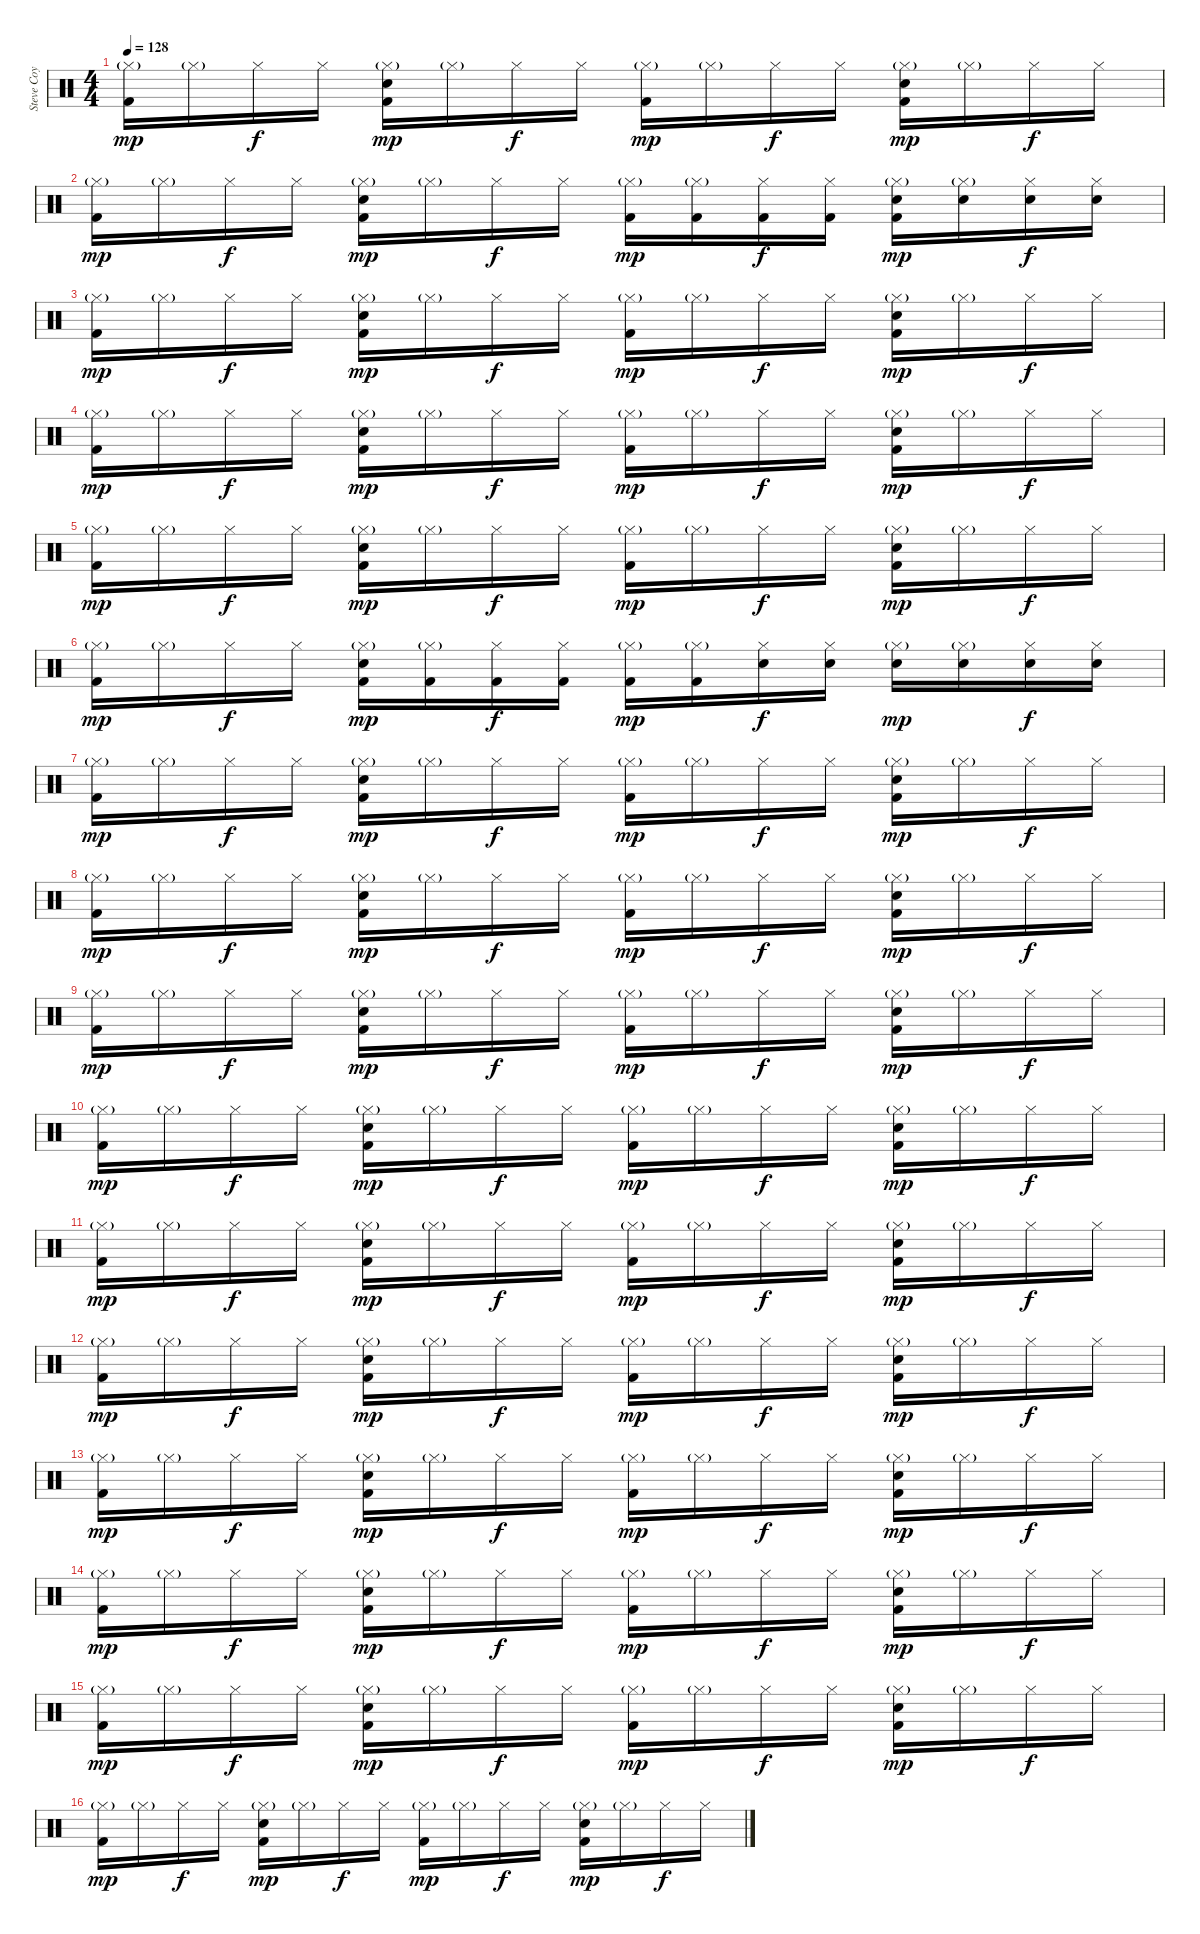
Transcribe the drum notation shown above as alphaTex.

\track ("Steve Coy" "Steve Coy") {instrument percussion}
\staff {score}
\articulation defaults
\ts (4 4)
\tempo 128
\clef neutral
\ks c
("Hi-Hat (closed)"{g} "Kick (hit) 2").16{dy mp} "Hi-Hat (closed)"{g}.16 "Hi-Hat (closed)".16{dy f} "Hi-Hat (closed)".16 ("Hi-Hat (closed)"{g} "Snare (hit) 2" "Kick (hit) 2").16{dy mp} "Hi-Hat (closed)"{g}.16 "Hi-Hat (closed)".16{dy f} "Hi-Hat (closed)".16 ("Hi-Hat (closed)"{g} "Kick (hit) 2").16{dy mp} "Hi-Hat (closed)"{g}.16 "Hi-Hat (closed)".16{dy f} "Hi-Hat (closed)".16 ("Hi-Hat (closed)"{g} "Snare (hit) 2" "Kick (hit) 2").16{dy mp} "Hi-Hat (closed)"{g}.16 "Hi-Hat (closed)".16{dy f} "Hi-Hat (closed)".16 |
("Hi-Hat (closed)"{g} "Kick (hit) 2").16{dy mp} "Hi-Hat (closed)"{g}.16 "Hi-Hat (closed)".16{dy f} "Hi-Hat (closed)".16 ("Hi-Hat (closed)"{g} "Snare (hit) 2" "Kick (hit) 2").16{dy mp} "Hi-Hat (closed)"{g}.16 "Hi-Hat (closed)".16{dy f} "Hi-Hat (closed)".16 ("Hi-Hat (closed)"{g} "Kick (hit) 2").16{dy mp} ("Hi-Hat (closed)"{g} "Kick (hit) 2").16 ("Hi-Hat (closed)" "Kick (hit) 2").16{dy f} ("Hi-Hat (closed)" "Kick (hit) 2").16 ("Hi-Hat (closed)"{g} "Snare (hit) 2" "Kick (hit) 2").16{dy mp} ("Hi-Hat (closed)"{g} "Snare (hit) 2").16 ("Hi-Hat (closed)" "Snare (hit) 2").16{dy f} ("Hi-Hat (closed)" "Snare (hit) 2").16 |
("Hi-Hat (closed)"{g} "Kick (hit) 2").16{dy mp} "Hi-Hat (closed)"{g}.16 "Hi-Hat (closed)".16{dy f} "Hi-Hat (closed)".16 ("Hi-Hat (closed)"{g} "Snare (hit) 2" "Kick (hit) 2").16{dy mp} "Hi-Hat (closed)"{g}.16 "Hi-Hat (closed)".16{dy f} "Hi-Hat (closed)".16 ("Hi-Hat (closed)"{g} "Kick (hit) 2").16{dy mp} "Hi-Hat (closed)"{g}.16 "Hi-Hat (closed)".16{dy f} "Hi-Hat (closed)".16 ("Hi-Hat (closed)"{g} "Snare (hit) 2" "Kick (hit) 2").16{dy mp} "Hi-Hat (closed)"{g}.16 "Hi-Hat (closed)".16{dy f} "Hi-Hat (closed)".16 |
("Hi-Hat (closed)"{g} "Kick (hit) 2").16{dy mp} "Hi-Hat (closed)"{g}.16 "Hi-Hat (closed)".16{dy f} "Hi-Hat (closed)".16 ("Hi-Hat (closed)"{g} "Snare (hit) 2" "Kick (hit) 2").16{dy mp} "Hi-Hat (closed)"{g}.16 "Hi-Hat (closed)".16{dy f} "Hi-Hat (closed)".16 ("Hi-Hat (closed)"{g} "Kick (hit) 2").16{dy mp} "Hi-Hat (closed)"{g}.16 "Hi-Hat (closed)".16{dy f} "Hi-Hat (closed)".16 ("Hi-Hat (closed)"{g} "Snare (hit) 2" "Kick (hit) 2").16{dy mp} "Hi-Hat (closed)"{g}.16 "Hi-Hat (closed)".16{dy f} "Hi-Hat (closed)".16 |
("Hi-Hat (closed)"{g} "Kick (hit) 2").16{dy mp} "Hi-Hat (closed)"{g}.16 "Hi-Hat (closed)".16{dy f} "Hi-Hat (closed)".16 ("Hi-Hat (closed)"{g} "Snare (hit) 2" "Kick (hit) 2").16{dy mp} "Hi-Hat (closed)"{g}.16 "Hi-Hat (closed)".16{dy f} "Hi-Hat (closed)".16 ("Hi-Hat (closed)"{g} "Kick (hit) 2").16{dy mp} "Hi-Hat (closed)"{g}.16 "Hi-Hat (closed)".16{dy f} "Hi-Hat (closed)".16 ("Hi-Hat (closed)"{g} "Snare (hit) 2" "Kick (hit) 2").16{dy mp} "Hi-Hat (closed)"{g}.16 "Hi-Hat (closed)".16{dy f} "Hi-Hat (closed)".16 |
("Hi-Hat (closed)"{g} "Kick (hit) 2").16{dy mp} "Hi-Hat (closed)"{g}.16 "Hi-Hat (closed)".16{dy f} "Hi-Hat (closed)".16 ("Hi-Hat (closed)"{g} "Snare (hit) 2" "Kick (hit) 2").16{dy mp} ("Hi-Hat (closed)"{g} "Kick (hit) 2").16 ("Hi-Hat (closed)" "Kick (hit) 2").16{dy f} ("Hi-Hat (closed)" "Kick (hit) 2").16 ("Hi-Hat (closed)"{g} "Kick (hit) 2").16{dy mp} ("Hi-Hat (closed)"{g} "Kick (hit) 2").16 ("Hi-Hat (closed)" "Snare (hit) 2").16{dy f} ("Hi-Hat (closed)" "Snare (hit) 2").16 ("Hi-Hat (closed)"{g} "Snare (hit) 2").16{dy mp} ("Hi-Hat (closed)"{g} "Snare (hit) 2").16 ("Hi-Hat (closed)" "Snare (hit) 2").16{dy f} ("Hi-Hat (closed)" "Snare (hit) 2").16 |
("Hi-Hat (closed)"{g} "Kick (hit) 2").16{dy mp} "Hi-Hat (closed)"{g}.16 "Hi-Hat (closed)".16{dy f} "Hi-Hat (closed)".16 ("Hi-Hat (closed)"{g} "Snare (hit) 2" "Kick (hit) 2").16{dy mp} "Hi-Hat (closed)"{g}.16 "Hi-Hat (closed)".16{dy f} "Hi-Hat (closed)".16 ("Hi-Hat (closed)"{g} "Kick (hit) 2").16{dy mp} "Hi-Hat (closed)"{g}.16 "Hi-Hat (closed)".16{dy f} "Hi-Hat (closed)".16 ("Hi-Hat (closed)"{g} "Snare (hit) 2" "Kick (hit) 2").16{dy mp} "Hi-Hat (closed)"{g}.16 "Hi-Hat (closed)".16{dy f} "Hi-Hat (closed)".16 |
("Hi-Hat (closed)"{g} "Kick (hit) 2").16{dy mp} "Hi-Hat (closed)"{g}.16 "Hi-Hat (closed)".16{dy f} "Hi-Hat (closed)".16 ("Hi-Hat (closed)"{g} "Snare (hit) 2" "Kick (hit) 2").16{dy mp} "Hi-Hat (closed)"{g}.16 "Hi-Hat (closed)".16{dy f} "Hi-Hat (closed)".16 ("Hi-Hat (closed)"{g} "Kick (hit) 2").16{dy mp} "Hi-Hat (closed)"{g}.16 "Hi-Hat (closed)".16{dy f} "Hi-Hat (closed)".16 ("Hi-Hat (closed)"{g} "Snare (hit) 2" "Kick (hit) 2").16{dy mp} "Hi-Hat (closed)"{g}.16 "Hi-Hat (closed)".16{dy f} "Hi-Hat (closed)".16 |
("Hi-Hat (closed)"{g} "Kick (hit) 2").16{dy mp} "Hi-Hat (closed)"{g}.16 "Hi-Hat (closed)".16{dy f} "Hi-Hat (closed)".16 ("Hi-Hat (closed)"{g} "Snare (hit) 2" "Kick (hit) 2").16{dy mp} "Hi-Hat (closed)"{g}.16 "Hi-Hat (closed)".16{dy f} "Hi-Hat (closed)".16 ("Hi-Hat (closed)"{g} "Kick (hit) 2").16{dy mp} "Hi-Hat (closed)"{g}.16 "Hi-Hat (closed)".16{dy f} "Hi-Hat (closed)".16 ("Hi-Hat (closed)"{g} "Snare (hit) 2" "Kick (hit) 2").16{dy mp} "Hi-Hat (closed)"{g}.16 "Hi-Hat (closed)".16{dy f} "Hi-Hat (closed)".16 |
("Hi-Hat (closed)"{g} "Kick (hit) 2").16{dy mp} "Hi-Hat (closed)"{g}.16 "Hi-Hat (closed)".16{dy f} "Hi-Hat (closed)".16 ("Hi-Hat (closed)"{g} "Snare (hit) 2" "Kick (hit) 2").16{dy mp} "Hi-Hat (closed)"{g}.16 "Hi-Hat (closed)".16{dy f} "Hi-Hat (closed)".16 ("Hi-Hat (closed)"{g} "Kick (hit) 2").16{dy mp} "Hi-Hat (closed)"{g}.16 "Hi-Hat (closed)".16{dy f} "Hi-Hat (closed)".16 ("Hi-Hat (closed)"{g} "Snare (hit) 2" "Kick (hit) 2").16{dy mp} "Hi-Hat (closed)"{g}.16 "Hi-Hat (closed)".16{dy f} "Hi-Hat (closed)".16 |
("Hi-Hat (closed)"{g} "Kick (hit) 2").16{dy mp} "Hi-Hat (closed)"{g}.16 "Hi-Hat (closed)".16{dy f} "Hi-Hat (closed)".16 ("Hi-Hat (closed)"{g} "Snare (hit) 2" "Kick (hit) 2").16{dy mp} "Hi-Hat (closed)"{g}.16 "Hi-Hat (closed)".16{dy f} "Hi-Hat (closed)".16 ("Hi-Hat (closed)"{g} "Kick (hit) 2").16{dy mp} "Hi-Hat (closed)"{g}.16 "Hi-Hat (closed)".16{dy f} "Hi-Hat (closed)".16 ("Hi-Hat (closed)"{g} "Snare (hit) 2" "Kick (hit) 2").16{dy mp} "Hi-Hat (closed)"{g}.16 "Hi-Hat (closed)".16{dy f} "Hi-Hat (closed)".16 |
("Hi-Hat (closed)"{g} "Kick (hit) 2").16{dy mp} "Hi-Hat (closed)"{g}.16 "Hi-Hat (closed)".16{dy f} "Hi-Hat (closed)".16 ("Hi-Hat (closed)"{g} "Snare (hit) 2" "Kick (hit) 2").16{dy mp} "Hi-Hat (closed)"{g}.16 "Hi-Hat (closed)".16{dy f} "Hi-Hat (closed)".16 ("Hi-Hat (closed)"{g} "Kick (hit) 2").16{dy mp} "Hi-Hat (closed)"{g}.16 "Hi-Hat (closed)".16{dy f} "Hi-Hat (closed)".16 ("Hi-Hat (closed)"{g} "Snare (hit) 2" "Kick (hit) 2").16{dy mp} "Hi-Hat (closed)"{g}.16 "Hi-Hat (closed)".16{dy f} "Hi-Hat (closed)".16 |
("Hi-Hat (closed)"{g} "Kick (hit) 2").16{dy mp} "Hi-Hat (closed)"{g}.16 "Hi-Hat (closed)".16{dy f} "Hi-Hat (closed)".16 ("Hi-Hat (closed)"{g} "Snare (hit) 2" "Kick (hit) 2").16{dy mp} "Hi-Hat (closed)"{g}.16 "Hi-Hat (closed)".16{dy f} "Hi-Hat (closed)".16 ("Hi-Hat (closed)"{g} "Kick (hit) 2").16{dy mp} "Hi-Hat (closed)"{g}.16 "Hi-Hat (closed)".16{dy f} "Hi-Hat (closed)".16 ("Hi-Hat (closed)"{g} "Snare (hit) 2" "Kick (hit) 2").16{dy mp} "Hi-Hat (closed)"{g}.16 "Hi-Hat (closed)".16{dy f} "Hi-Hat (closed)".16 |
("Hi-Hat (closed)"{g} "Kick (hit) 2").16{dy mp} "Hi-Hat (closed)"{g}.16 "Hi-Hat (closed)".16{dy f} "Hi-Hat (closed)".16 ("Hi-Hat (closed)"{g} "Snare (hit) 2" "Kick (hit) 2").16{dy mp} "Hi-Hat (closed)"{g}.16 "Hi-Hat (closed)".16{dy f} "Hi-Hat (closed)".16 ("Hi-Hat (closed)"{g} "Kick (hit) 2").16{dy mp} "Hi-Hat (closed)"{g}.16 "Hi-Hat (closed)".16{dy f} "Hi-Hat (closed)".16 ("Hi-Hat (closed)"{g} "Snare (hit) 2" "Kick (hit) 2").16{dy mp} "Hi-Hat (closed)"{g}.16 "Hi-Hat (closed)".16{dy f} "Hi-Hat (closed)".16 |
("Hi-Hat (closed)"{g} "Kick (hit) 2").16{dy mp} "Hi-Hat (closed)"{g}.16 "Hi-Hat (closed)".16{dy f} "Hi-Hat (closed)".16 ("Hi-Hat (closed)"{g} "Snare (hit) 2" "Kick (hit) 2").16{dy mp} "Hi-Hat (closed)"{g}.16 "Hi-Hat (closed)".16{dy f} "Hi-Hat (closed)".16 ("Hi-Hat (closed)"{g} "Kick (hit) 2").16{dy mp} "Hi-Hat (closed)"{g}.16 "Hi-Hat (closed)".16{dy f} "Hi-Hat (closed)".16 ("Hi-Hat (closed)"{g} "Snare (hit) 2" "Kick (hit) 2").16{dy mp} "Hi-Hat (closed)"{g}.16 "Hi-Hat (closed)".16{dy f} "Hi-Hat (closed)".16 |
("Hi-Hat (closed)"{g} "Kick (hit) 2").16{dy mp} "Hi-Hat (closed)"{g}.16 "Hi-Hat (closed)".16{dy f} "Hi-Hat (closed)".16 ("Hi-Hat (closed)"{g} "Snare (hit) 2" "Kick (hit) 2").16{dy mp} "Hi-Hat (closed)"{g}.16 "Hi-Hat (closed)".16{dy f} "Hi-Hat (closed)".16 ("Hi-Hat (closed)"{g} "Kick (hit) 2").16{dy mp} "Hi-Hat (closed)"{g}.16 "Hi-Hat (closed)".16{dy f} "Hi-Hat (closed)".16 ("Hi-Hat (closed)"{g} "Snare (hit) 2" "Kick (hit) 2").16{dy mp} "Hi-Hat (closed)"{g}.16 "Hi-Hat (closed)".16{dy f} "Hi-Hat (closed)".16
